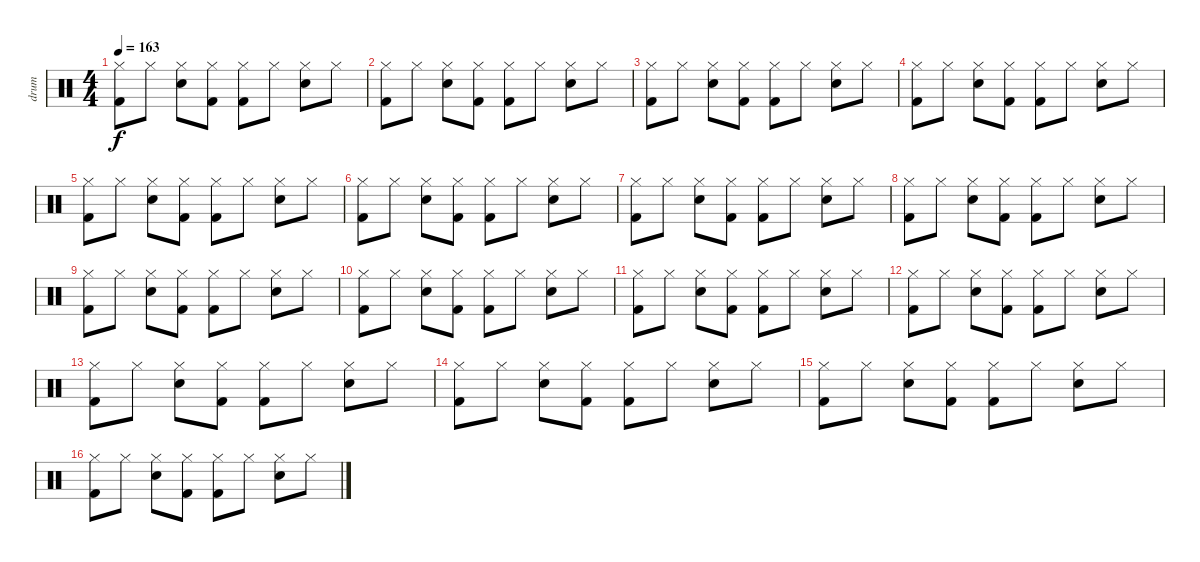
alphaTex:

\track ("drum" "drum") {instrument percussion}
\staff {score}
\articulation defaults
\ts (4 4)
\tempo 163
\clef neutral
\ks c
("Hi-Hat (closed)" "Kick (hit) 2").8{dy f} "Hi-Hat (closed)".8 ("Hi-Hat (closed)" "Electric Snare (hit)").8 ("Hi-Hat (closed)" "Kick (hit) 2").8 ("Hi-Hat (closed)" "Kick (hit) 2").8 "Hi-Hat (closed)".8 ("Hi-Hat (closed)" "Electric Snare (hit)").8 "Hi-Hat (closed)".8 |
("Hi-Hat (closed)" "Kick (hit) 2").8 "Hi-Hat (closed)".8 ("Hi-Hat (closed)" "Electric Snare (hit)").8 ("Hi-Hat (closed)" "Kick (hit) 2").8 ("Hi-Hat (closed)" "Kick (hit) 2").8 "Hi-Hat (closed)".8 ("Hi-Hat (closed)" "Electric Snare (hit)").8 "Hi-Hat (closed)".8 |
("Hi-Hat (closed)" "Kick (hit) 2").8 "Hi-Hat (closed)".8 ("Hi-Hat (closed)" "Electric Snare (hit)").8 ("Hi-Hat (closed)" "Kick (hit) 2").8 ("Hi-Hat (closed)" "Kick (hit) 2").8 "Hi-Hat (closed)".8 ("Hi-Hat (closed)" "Electric Snare (hit)").8 "Hi-Hat (closed)".8 |
("Hi-Hat (closed)" "Kick (hit) 2").8 "Hi-Hat (closed)".8 ("Hi-Hat (closed)" "Electric Snare (hit)").8 ("Hi-Hat (closed)" "Kick (hit) 2").8 ("Hi-Hat (closed)" "Kick (hit) 2").8 "Hi-Hat (closed)".8 ("Hi-Hat (closed)" "Electric Snare (hit)").8 "Hi-Hat (closed)".8 |
("Hi-Hat (closed)" "Kick (hit) 2").8 "Hi-Hat (closed)".8 ("Hi-Hat (closed)" "Electric Snare (hit)").8 ("Hi-Hat (closed)" "Kick (hit) 2").8 ("Hi-Hat (closed)" "Kick (hit) 2").8 "Hi-Hat (closed)".8 ("Hi-Hat (closed)" "Electric Snare (hit)").8 "Hi-Hat (closed)".8 |
("Hi-Hat (closed)" "Kick (hit) 2").8 "Hi-Hat (closed)".8 ("Hi-Hat (closed)" "Electric Snare (hit)").8 ("Hi-Hat (closed)" "Kick (hit) 2").8 ("Hi-Hat (closed)" "Kick (hit) 2").8 "Hi-Hat (closed)".8 ("Hi-Hat (closed)" "Electric Snare (hit)").8 "Hi-Hat (closed)".8 |
("Hi-Hat (closed)" "Kick (hit) 2").8 "Hi-Hat (closed)".8 ("Hi-Hat (closed)" "Electric Snare (hit)").8 ("Hi-Hat (closed)" "Kick (hit) 2").8 ("Hi-Hat (closed)" "Kick (hit) 2").8 "Hi-Hat (closed)".8 ("Hi-Hat (closed)" "Electric Snare (hit)").8 "Hi-Hat (closed)".8 |
("Hi-Hat (closed)" "Kick (hit) 2").8 "Hi-Hat (closed)".8 ("Hi-Hat (closed)" "Electric Snare (hit)").8 ("Hi-Hat (closed)" "Kick (hit) 2").8 ("Hi-Hat (closed)" "Kick (hit) 2").8 "Hi-Hat (closed)".8 ("Hi-Hat (closed)" "Electric Snare (hit)").8 "Hi-Hat (closed)".8 |
("Hi-Hat (closed)" "Kick (hit) 2").8 "Hi-Hat (closed)".8 ("Hi-Hat (closed)" "Electric Snare (hit)").8 ("Hi-Hat (closed)" "Kick (hit) 2").8 ("Hi-Hat (closed)" "Kick (hit) 2").8 "Hi-Hat (closed)".8 ("Hi-Hat (closed)" "Electric Snare (hit)").8 "Hi-Hat (closed)".8 |
("Hi-Hat (closed)" "Kick (hit) 2").8 "Hi-Hat (closed)".8 ("Hi-Hat (closed)" "Electric Snare (hit)").8 ("Hi-Hat (closed)" "Kick (hit) 2").8 ("Hi-Hat (closed)" "Kick (hit) 2").8 "Hi-Hat (closed)".8 ("Hi-Hat (closed)" "Electric Snare (hit)").8 "Hi-Hat (closed)".8 |
("Hi-Hat (closed)" "Kick (hit) 2").8 "Hi-Hat (closed)".8 ("Hi-Hat (closed)" "Electric Snare (hit)").8 ("Hi-Hat (closed)" "Kick (hit) 2").8 ("Hi-Hat (closed)" "Kick (hit) 2").8 "Hi-Hat (closed)".8 ("Hi-Hat (closed)" "Electric Snare (hit)").8 "Hi-Hat (closed)".8 |
("Hi-Hat (closed)" "Kick (hit) 2").8 "Hi-Hat (closed)".8 ("Hi-Hat (closed)" "Electric Snare (hit)").8 ("Hi-Hat (closed)" "Kick (hit) 2").8 ("Hi-Hat (closed)" "Kick (hit) 2").8 "Hi-Hat (closed)".8 ("Hi-Hat (closed)" "Electric Snare (hit)").8 "Hi-Hat (closed)".8 |
("Hi-Hat (closed)" "Kick (hit) 2").8 "Hi-Hat (closed)".8 ("Hi-Hat (closed)" "Electric Snare (hit)").8 ("Hi-Hat (closed)" "Kick (hit) 2").8 ("Hi-Hat (closed)" "Kick (hit) 2").8 "Hi-Hat (closed)".8 ("Hi-Hat (closed)" "Electric Snare (hit)").8 "Hi-Hat (closed)".8 |
("Hi-Hat (closed)" "Kick (hit) 2").8 "Hi-Hat (closed)".8 ("Hi-Hat (closed)" "Electric Snare (hit)").8 ("Hi-Hat (closed)" "Kick (hit) 2").8 ("Hi-Hat (closed)" "Kick (hit) 2").8 "Hi-Hat (closed)".8 ("Hi-Hat (closed)" "Electric Snare (hit)").8 "Hi-Hat (closed)".8 |
("Hi-Hat (closed)" "Kick (hit) 2").8 "Hi-Hat (closed)".8 ("Hi-Hat (closed)" "Electric Snare (hit)").8 ("Hi-Hat (closed)" "Kick (hit) 2").8 ("Hi-Hat (closed)" "Kick (hit) 2").8 "Hi-Hat (closed)".8 ("Hi-Hat (closed)" "Electric Snare (hit)").8 "Hi-Hat (closed)".8 |
("Hi-Hat (closed)" "Kick (hit) 2").8 "Hi-Hat (closed)".8 ("Hi-Hat (closed)" "Electric Snare (hit)").8 ("Hi-Hat (closed)" "Kick (hit) 2").8 ("Hi-Hat (closed)" "Kick (hit) 2").8 "Hi-Hat (closed)".8 ("Hi-Hat (closed)" "Electric Snare (hit)").8 "Hi-Hat (closed)".8
